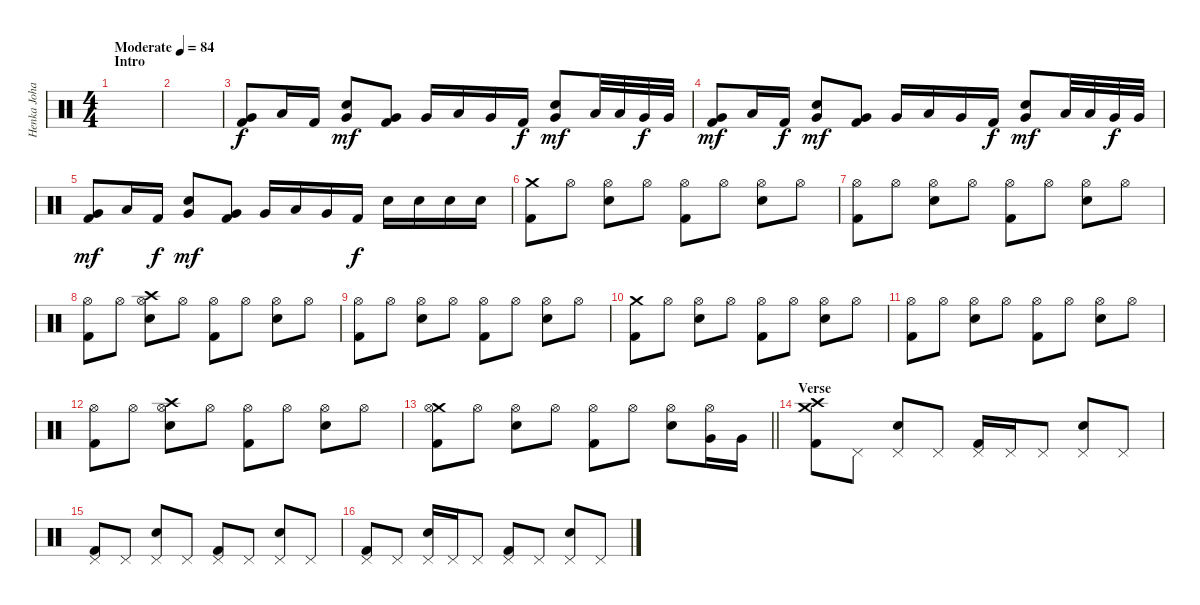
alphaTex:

\track ("Henka Johansson" "Henka Joha") {instrument percussion}
\staff {score}
\articulation defaults
\ts (4 4)
\section ("" "Intro")
\tempo (84 "Moderate")
\clef neutral
\ks c
|
|
("Very Low Tom (hit)" "Kick (hit) 2").8 "Low Tom (hit)".16 "Kick (hit) 2".16{dy f} ("Very Low Tom (hit)" "Electric Snare (hit)").8{dy mf} ("Very Low Tom (hit)" "Kick (hit) 2").8 "Very Low Tom (hit)".16 "Low Tom (hit)".16 "Very Low Tom (hit)".16 "Kick (hit) 2".16{dy f} ("Very Low Tom (hit)" "Electric Snare (hit)").8{dy mf} "Low Tom (hit)".32 "Low Tom (hit)".32 "Very Low Tom (hit)".32{dy f} "Very Low Tom (hit)".32 |
("Very Low Tom (hit)" "Kick (hit) 2").8{dy mf} "Low Tom (hit)".16 "Kick (hit) 2".16{dy f} ("Very Low Tom (hit)" "Electric Snare (hit)").8{dy mf} ("Very Low Tom (hit)" "Kick (hit) 2").8 "Very Low Tom (hit)".16 "Low Tom (hit)".16 "Very Low Tom (hit)".16 "Kick (hit) 2".16{dy f} ("Very Low Tom (hit)" "Electric Snare (hit)").8{dy mf} "Low Tom (hit)".32 "Low Tom (hit)".32 "Very Low Tom (hit)".32{dy f} "Very Low Tom (hit)".32 |
("Very Low Tom (hit)" "Kick (hit) 2").8{dy mf} "Low Tom (hit)".16 "Kick (hit) 2".16{dy f} ("Very Low Tom (hit)" "Electric Snare (hit)").8{dy mf} ("Very Low Tom (hit)" "Kick (hit) 2").8 "Very Low Tom (hit)".16 "Low Tom (hit)".16 "Very Low Tom (hit)".16 "Kick (hit) 2".16{dy f} "Electric Snare (hit)".16 "Electric Snare (hit)".16 "Electric Snare (hit)".16 "Electric Snare (hit)".16 |
("Crash medium (hit)" "Kick (hit) 2").8 "Hi-Hat (open)".8 ("Hi-Hat (open)" "Electric Snare (hit)").8 "Hi-Hat (open)".8 ("Hi-Hat (open)" "Kick (hit) 2").8 "Hi-Hat (open)".8 ("Hi-Hat (open)" "Electric Snare (hit)").8 "Hi-Hat (open)".8 |
("Hi-Hat (open)" "Kick (hit) 2").8 "Hi-Hat (open)".8 ("Hi-Hat (open)" "Electric Snare (hit)").8 "Hi-Hat (open)".8 ("Hi-Hat (open)" "Kick (hit) 2").8 "Hi-Hat (open)".8 ("Hi-Hat (open)" "Electric Snare (hit)").8 "Hi-Hat (open)".8 |
("Hi-Hat (open)" "Kick (hit) 2").8 "Hi-Hat (open)".8 ("Crash high (hit)" "Hi-Hat (open)" "Electric Snare (hit)").8 "Hi-Hat (open)".8 ("Hi-Hat (open)" "Kick (hit) 2").8 "Hi-Hat (open)".8 ("Hi-Hat (open)" "Electric Snare (hit)").8 "Hi-Hat (open)".8 |
("Hi-Hat (open)" "Kick (hit) 2").8 "Hi-Hat (open)".8 ("Hi-Hat (open)" "Electric Snare (hit)").8 "Hi-Hat (open)".8 ("Hi-Hat (open)" "Kick (hit) 2").8 "Hi-Hat (open)".8 ("Hi-Hat (open)" "Electric Snare (hit)").8 "Hi-Hat (open)".8 |
("Crash medium (hit)" "Kick (hit) 2").8 "Hi-Hat (open)".8 ("Hi-Hat (open)" "Electric Snare (hit)").8 "Hi-Hat (open)".8 ("Hi-Hat (open)" "Kick (hit) 2").8 "Hi-Hat (open)".8 ("Hi-Hat (open)" "Electric Snare (hit)").8 "Hi-Hat (open)".8 |
("Hi-Hat (open)" "Kick (hit) 2").8 "Hi-Hat (open)".8 ("Hi-Hat (open)" "Electric Snare (hit)").8 "Hi-Hat (open)".8 ("Hi-Hat (open)" "Kick (hit) 2").8 "Hi-Hat (open)".8 ("Hi-Hat (open)" "Electric Snare (hit)").8 "Hi-Hat (open)".8 |
("Hi-Hat (open)" "Kick (hit) 2").8 "Hi-Hat (open)".8 ("Crash high (hit)" "Hi-Hat (open)" "Electric Snare (hit)").8 "Hi-Hat (open)".8 ("Hi-Hat (open)" "Kick (hit) 2").8 "Hi-Hat (open)".8 ("Hi-Hat (open)" "Electric Snare (hit)").8 "Hi-Hat (open)".8 |
\barLineRight lightlight
("Crash medium (hit)" "Hi-Hat (open)" "Kick (hit) 2").8 "Hi-Hat (open)".8 ("Hi-Hat (open)" "Electric Snare (hit)").8 "Hi-Hat (open)".8 ("Hi-Hat (open)" "Kick (hit) 2").8 "Hi-Hat (open)".8 ("Hi-Hat (open)" "Electric Snare (hit)").8 ("Hi-Hat (open)" "Very Low Tom (hit)").16 "Very Low Tom (hit)".16 |
\section ("" "Verse")
("Crash medium (hit)" "Crash high (hit)" "Kick (hit) 2").8 "Pedal Hi-Hat (hit)".8 ("Pedal Hi-Hat (hit)" "Electric Snare (hit)").8 "Pedal Hi-Hat (hit)".8 ("Pedal Hi-Hat (hit)" "Kick (hit) 2").16 "Pedal Hi-Hat (hit)".16 "Pedal Hi-Hat (hit)".8 ("Pedal Hi-Hat (hit)" "Electric Snare (hit)").8 "Pedal Hi-Hat (hit)".8 |
("Pedal Hi-Hat (hit)" "Kick (hit) 2").8 "Pedal Hi-Hat (hit)".8 ("Pedal Hi-Hat (hit)" "Electric Snare (hit)").8 "Pedal Hi-Hat (hit)".8 ("Pedal Hi-Hat (hit)" "Kick (hit) 2").8 "Pedal Hi-Hat (hit)".8 ("Pedal Hi-Hat (hit)" "Electric Snare (hit)").8 "Pedal Hi-Hat (hit)".8 |
("Pedal Hi-Hat (hit)" "Kick (hit) 2").8 "Pedal Hi-Hat (hit)".8 ("Pedal Hi-Hat (hit)" "Electric Snare (hit)").16 "Pedal Hi-Hat (hit)".16 "Pedal Hi-Hat (hit)".8 ("Pedal Hi-Hat (hit)" "Kick (hit) 2").8 "Pedal Hi-Hat (hit)".8 ("Pedal Hi-Hat (hit)" "Electric Snare (hit)").8 "Pedal Hi-Hat (hit)".8
